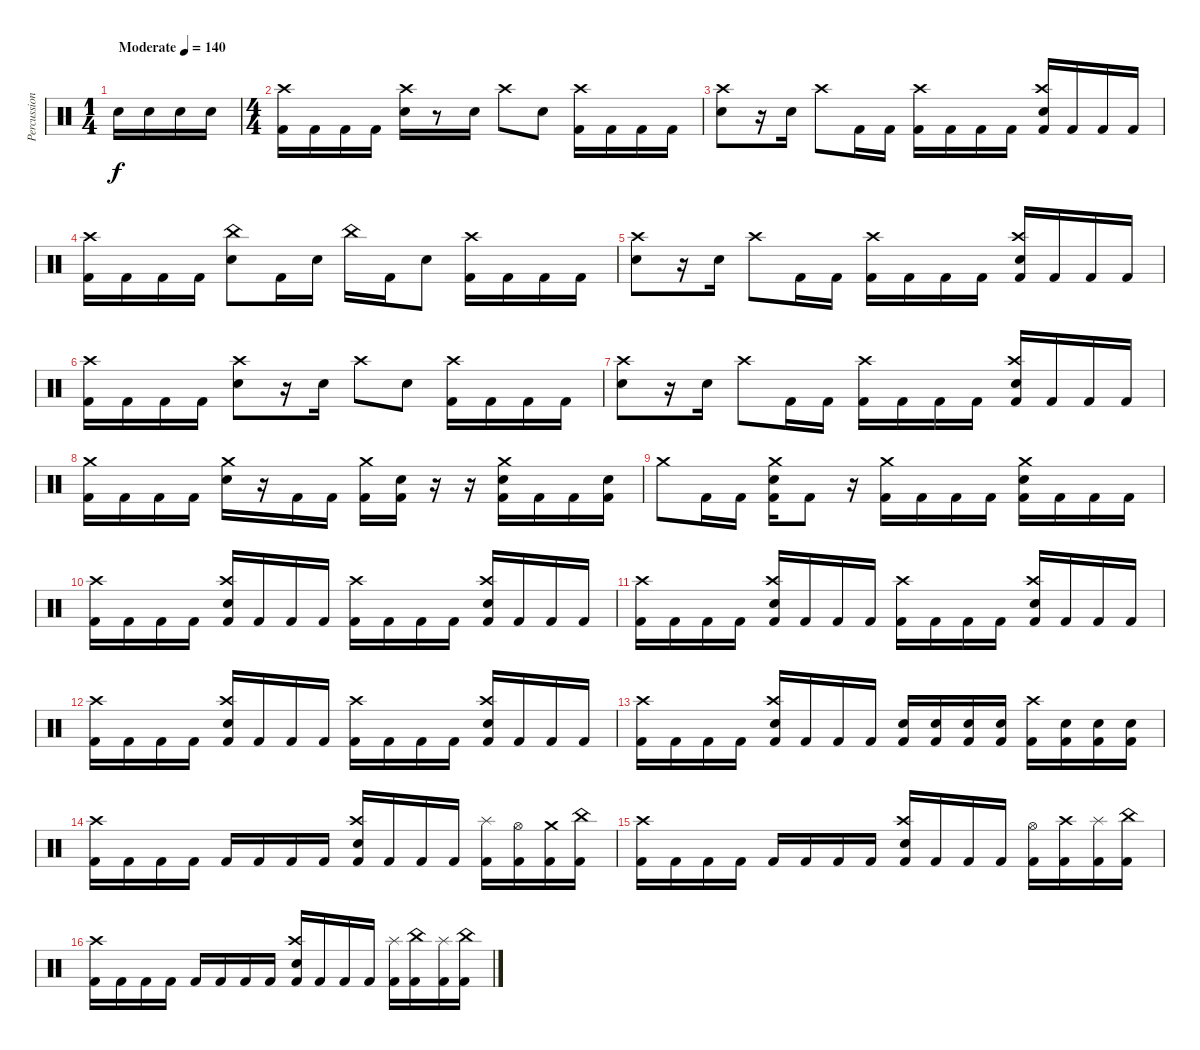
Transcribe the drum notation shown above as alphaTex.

\track ("Percussion" "Percussion") {instrument percussion}
\staff {score}
\articulation defaults
\ts (1 4)
\tempo (140 "Moderate")
\clef neutral
\ks c "Electric Snare (hit)".16{dy f} "Electric Snare (hit)".16 "Electric Snare (hit)".16 "Electric Snare (hit)".16
|
\ts (4 4)
("Crash high (hit)" "Kick (hit) 2").16 "Kick (hit) 2".16 "Kick (hit) 2".16 "Kick (hit) 2".16 ("Crash high (hit)" "Electric Snare (hit)").16 r.8 "Electric Snare (hit)".16 "Crash high (hit)".8 "Electric Snare (hit)".8 ("Crash high (hit)" "Kick (hit) 2").16 "Kick (hit) 2".16 "Kick (hit) 2".16 "Kick (hit) 2".16 |
("Crash high (hit)" "Electric Snare (hit)").8 r.16 "Electric Snare (hit)".16 "Crash high (hit)".8 "Kick (hit) 2".16 "Kick (hit) 2".16 ("Crash high (hit)" "Kick (hit) 2").16 "Kick (hit) 2".16 "Kick (hit) 2".16 "Kick (hit) 2".16 ("Crash high (hit)" "Electric Snare (hit)" "Kick (hit) 2").16 "Kick (hit) 2".16 "Kick (hit) 2".16 "Kick (hit) 2".16 |
("Crash high (hit)" "Kick (hit) 2").16 "Kick (hit) 2".16 "Kick (hit) 2".16 "Kick (hit) 2".16 ("China (hit)" "Electric Snare (hit)").8 "Kick (hit) 2".16 "Electric Snare (hit)".16 "China (hit)".16 "Kick (hit) 2".16 "Electric Snare (hit)".8 ("Crash high (hit)" "Kick (hit) 2").16 "Kick (hit) 2".16 "Kick (hit) 2".16 "Kick (hit) 2".16 |
("Crash high (hit)" "Electric Snare (hit)").8 r.16 "Electric Snare (hit)".16 "Crash high (hit)".8 "Kick (hit) 2".16 "Kick (hit) 2".16 ("Crash high (hit)" "Kick (hit) 2").16 "Kick (hit) 2".16 "Kick (hit) 2".16 "Kick (hit) 2".16 ("Crash high (hit)" "Electric Snare (hit)" "Kick (hit) 2").16 "Kick (hit) 2".16 "Kick (hit) 2".16 "Kick (hit) 2".16 |
("Crash high (hit)" "Kick (hit) 2").16 "Kick (hit) 2".16 "Kick (hit) 2".16 "Kick (hit) 2".16 ("Crash high (hit)" "Electric Snare (hit)").8 r.16 "Electric Snare (hit)".16 "Crash high (hit)".8 "Electric Snare (hit)".8 ("Crash high (hit)" "Kick (hit) 2").16 "Kick (hit) 2".16 "Kick (hit) 2".16 "Kick (hit) 2".16 |
("Crash high (hit)" "Electric Snare (hit)").8 r.16 "Electric Snare (hit)".16 "Crash high (hit)".8 "Kick (hit) 2".16 "Kick (hit) 2".16 ("Crash high (hit)" "Kick (hit) 2").16 "Kick (hit) 2".16 "Kick (hit) 2".16 "Kick (hit) 2".16 ("Crash high (hit)" "Electric Snare (hit)" "Kick (hit) 2").16 "Kick (hit) 2".16 "Kick (hit) 2".16 "Kick (hit) 2".16 |
("Crash medium (hit)" "Kick (hit) 2").16 "Kick (hit) 2".16 "Kick (hit) 2".16 "Kick (hit) 2".16 ("Crash medium (hit)" "Electric Snare (hit)").16 r.16 "Kick (hit) 2".16 "Kick (hit) 2".16 ("Crash medium (hit)" "Kick (hit) 2").16 ("Electric Snare (hit)" "Kick (hit) 2").16 r.16 r.16 ("Crash medium (hit)" "Electric Snare (hit)" "Kick (hit) 2").16 "Kick (hit) 2".16 "Kick (hit) 2".16 ("Electric Snare (hit)" "Kick (hit) 2").16 |
"Crash medium (hit)".8 "Kick (hit) 2".16 "Kick (hit) 2".16 ("Crash medium (hit)" "Electric Snare (hit)" "Kick (hit) 2").16 "Kick (hit) 2".8 r.16 ("Crash medium (hit)" "Kick (hit) 2").16 "Kick (hit) 2".16 "Kick (hit) 2".16 "Kick (hit) 2".16 ("Crash medium (hit)" "Electric Snare (hit)" "Kick (hit) 2").16 "Kick (hit) 2".16 "Kick (hit) 2".16 "Kick (hit) 2".16 |
("Crash high (hit)" "Kick (hit) 2").16 "Kick (hit) 2".16 "Kick (hit) 2".16 "Kick (hit) 2".16 ("Crash high (hit)" "Electric Snare (hit)" "Kick (hit) 2").16 "Kick (hit) 2".16 "Kick (hit) 2".16 "Kick (hit) 2".16 ("Crash high (hit)" "Kick (hit) 2").16 "Kick (hit) 2".16 "Kick (hit) 2".16 "Kick (hit) 2".16 ("Crash high (hit)" "Electric Snare (hit)" "Kick (hit) 2").16 "Kick (hit) 2".16 "Kick (hit) 2".16 "Kick (hit) 2".16 |
("Crash high (hit)" "Kick (hit) 2").16 "Kick (hit) 2".16 "Kick (hit) 2".16 "Kick (hit) 2".16 ("Crash high (hit)" "Electric Snare (hit)" "Kick (hit) 2").16 "Kick (hit) 2".16 "Kick (hit) 2".16 "Kick (hit) 2".16 ("Crash high (hit)" "Kick (hit) 2").16 "Kick (hit) 2".16 "Kick (hit) 2".16 "Kick (hit) 2".16 ("Crash high (hit)" "Electric Snare (hit)" "Kick (hit) 2").16 "Kick (hit) 2".16 "Kick (hit) 2".16 "Kick (hit) 2".16 |
("Crash high (hit)" "Kick (hit) 2").16 "Kick (hit) 2".16 "Kick (hit) 2".16 "Kick (hit) 2".16 ("Crash high (hit)" "Electric Snare (hit)" "Kick (hit) 2").16 "Kick (hit) 2".16 "Kick (hit) 2".16 "Kick (hit) 2".16 ("Crash high (hit)" "Kick (hit) 2").16 "Kick (hit) 2".16 "Kick (hit) 2".16 "Kick (hit) 2".16 ("Crash high (hit)" "Electric Snare (hit)" "Kick (hit) 2").16 "Kick (hit) 2".16 "Kick (hit) 2".16 "Kick (hit) 2".16 |
("Crash high (hit)" "Kick (hit) 2").16 "Kick (hit) 2".16 "Kick (hit) 2".16 "Kick (hit) 2".16 ("Crash high (hit)" "Electric Snare (hit)" "Kick (hit) 2").16 "Kick (hit) 2".16 "Kick (hit) 2".16 "Kick (hit) 2".16 ("Electric Snare (hit)" "Kick (hit) 2").16 ("Electric Snare (hit)" "Kick (hit) 2").16 ("Electric Snare (hit)" "Kick (hit) 2").16 ("Electric Snare (hit)" "Kick (hit) 2").16 ("Crash high (hit)" "Kick (hit) 2").16 ("Electric Snare (hit)" "Kick (hit) 2").16 ("Electric Snare (hit)" "Kick (hit) 2").16 ("Electric Snare (hit)" "Kick (hit) 2").16 |
("Crash high (hit)" "Kick (hit) 2").16 "Kick (hit) 2".16 "Kick (hit) 2".16 "Kick (hit) 2".16 "Kick (hit) 2".16 "Kick (hit) 2".16 "Kick (hit) 2".16 "Kick (hit) 2".16 ("Crash high (hit)" "Electric Snare (hit)" "Kick (hit) 2").16 "Kick (hit) 2".16 "Kick (hit) 2".16 "Kick (hit) 2".16 ("Splash (hit)" "Kick (hit) 2").16 ("Hi-Hat (open)" "Kick (hit) 2").16 ("Crash medium (hit)" "Kick (hit) 2").16 ("China (hit)" "Kick (hit) 2").16 |
("Crash high (hit)" "Kick (hit) 2").16 "Kick (hit) 2".16 "Kick (hit) 2".16 "Kick (hit) 2".16 "Kick (hit) 2".16 "Kick (hit) 2".16 "Kick (hit) 2".16 "Kick (hit) 2".16 ("Crash high (hit)" "Electric Snare (hit)" "Kick (hit) 2").16 "Kick (hit) 2".16 "Kick (hit) 2".16 "Kick (hit) 2".16 ("Hi-Hat (open)" "Kick (hit) 2").16 ("Crash high (hit)" "Kick (hit) 2").16 ("Splash (hit)" "Kick (hit) 2").16 ("China (hit)" "Kick (hit) 2").16 |
("Crash high (hit)" "Kick (hit) 2").16 "Kick (hit) 2".16 "Kick (hit) 2".16 "Kick (hit) 2".16 "Kick (hit) 2".16 "Kick (hit) 2".16 "Kick (hit) 2".16 "Kick (hit) 2".16 ("Crash high (hit)" "Electric Snare (hit)" "Kick (hit) 2").16 "Kick (hit) 2".16 "Kick (hit) 2".16 "Kick (hit) 2".16 ("Splash (hit)" "Kick (hit) 2").16 ("China (hit)" "Kick (hit) 2").16 ("Splash (hit)" "Kick (hit) 2").16 ("China (hit)" "Kick (hit) 2").16
